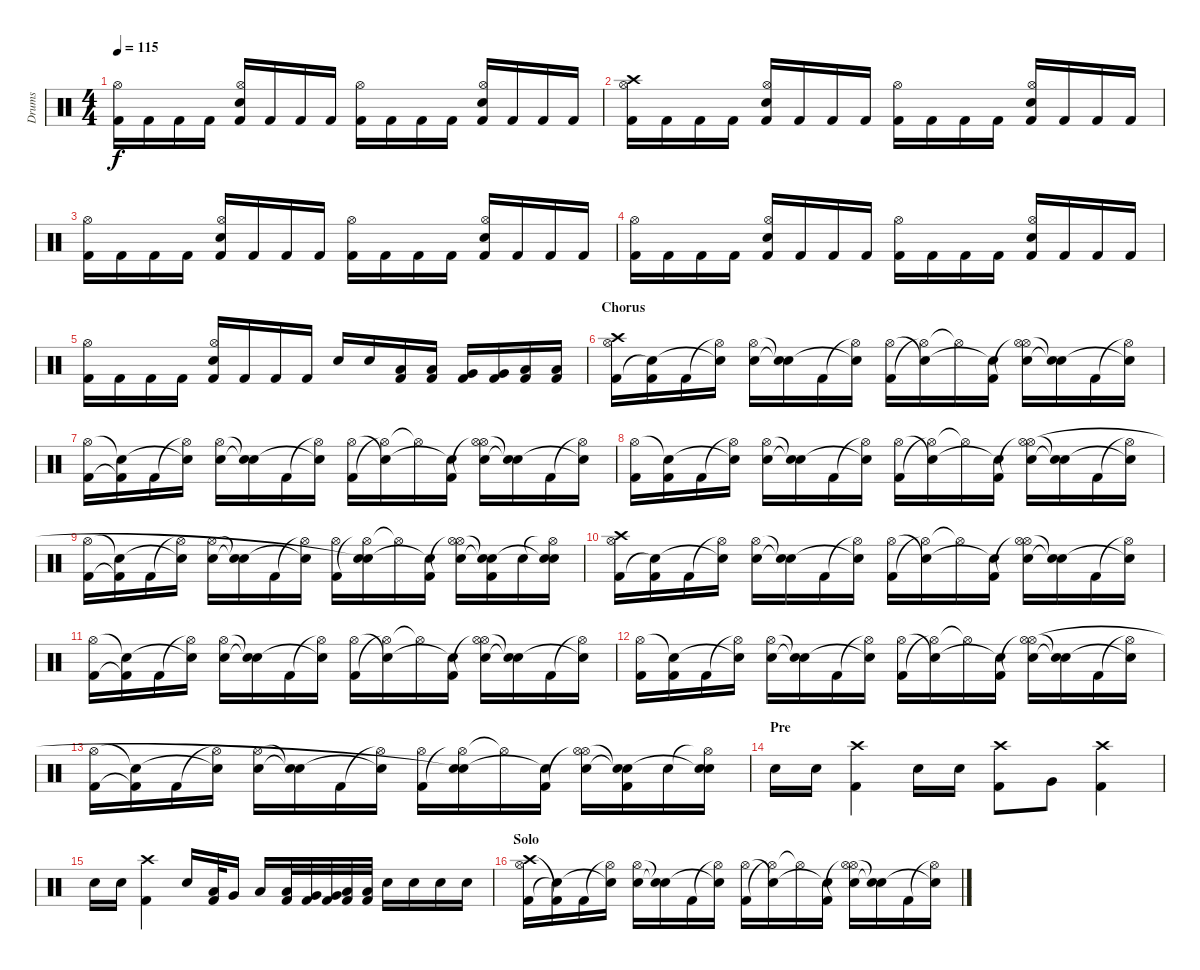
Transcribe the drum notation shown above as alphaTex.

\track ("Drums" "Drums") {instrument percussion}
\staff {score}
\articulation defaults
\ts (4 4)
\tempo 115
\clef neutral
\ks c
("Kick (hit) 2" "Hi-Hat (open)").16{dy f} "Kick (hit) 2".16 "Kick (hit) 2".16 "Kick (hit) 2".16 ("Kick (hit) 2" "Electric Snare (hit)" "Hi-Hat (open)").16 "Kick (hit) 2".16 "Kick (hit) 2".16 "Kick (hit) 2".16 ("Kick (hit) 2" "Hi-Hat (open)").16 "Kick (hit) 2".16 "Kick (hit) 2".16 "Kick (hit) 2".16 ("Kick (hit) 2" "Electric Snare (hit)" "Hi-Hat (open)").16 "Kick (hit) 2".16 "Kick (hit) 2".16 "Kick (hit) 2".16 |
("Kick (hit) 2" "Crash high (hit)" "Hi-Hat (open)").16 "Kick (hit) 2".16 "Kick (hit) 2".16 "Kick (hit) 2".16 ("Kick (hit) 2" "Electric Snare (hit)" "Hi-Hat (open)").16 "Kick (hit) 2".16 "Kick (hit) 2".16 "Kick (hit) 2".16 ("Kick (hit) 2" "Hi-Hat (open)").16 "Kick (hit) 2".16 "Kick (hit) 2".16 "Kick (hit) 2".16 ("Kick (hit) 2" "Electric Snare (hit)" "Hi-Hat (open)").16 "Kick (hit) 2".16 "Kick (hit) 2".16 "Kick (hit) 2".16 |
("Kick (hit) 2" "Hi-Hat (open)").16 "Kick (hit) 2".16 "Kick (hit) 2".16 "Kick (hit) 2".16 ("Kick (hit) 2" "Electric Snare (hit)" "Hi-Hat (open)").16 "Kick (hit) 2".16 "Kick (hit) 2".16 "Kick (hit) 2".16 ("Kick (hit) 2" "Hi-Hat (open)").16 "Kick (hit) 2".16 "Kick (hit) 2".16 "Kick (hit) 2".16 ("Kick (hit) 2" "Electric Snare (hit)" "Hi-Hat (open)").16 "Kick (hit) 2".16 "Kick (hit) 2".16 "Kick (hit) 2".16 |
("Kick (hit) 2" "Hi-Hat (open)").16 "Kick (hit) 2".16 "Kick (hit) 2".16 "Kick (hit) 2".16 ("Kick (hit) 2" "Electric Snare (hit)" "Hi-Hat (open)").16 "Kick (hit) 2".16 "Kick (hit) 2".16 "Kick (hit) 2".16 ("Kick (hit) 2" "Hi-Hat (open)").16 "Kick (hit) 2".16 "Kick (hit) 2".16 "Kick (hit) 2".16 ("Kick (hit) 2" "Electric Snare (hit)" "Hi-Hat (open)").16 "Kick (hit) 2".16 "Kick (hit) 2".16 "Kick (hit) 2".16 |
("Kick (hit) 2" "Hi-Hat (open)").16 "Kick (hit) 2".16 "Kick (hit) 2".16 "Kick (hit) 2".16 ("Kick (hit) 2" "Electric Snare (hit)" "Hi-Hat (open)").16 "Kick (hit) 2".16 "Kick (hit) 2".16 "Kick (hit) 2".16 "Electric Snare (hit)".16 "Electric Snare (hit)".16 ("Low Tom (hit)" "Kick (hit) 2").16 ("Low Tom (hit)" "Kick (hit) 2").16 ("Very Low Tom (hit)" "Kick (hit) 2").16 ("Very Low Tom (hit)" "Kick (hit) 2").16 ("Low Floor Tom (hit)" "Kick (hit) 2").16 ("Low Floor Tom (hit)" "Kick (hit) 2").16 |
\section ("" "Chorus")
("Crash high (hit)" "Kick (hit) 2" "Hi-Hat (open)").16 ("Kick (hit) 2" "Snare (hit)"{t}).16 "Kick (hit) 2".16 ("Hi-Hat (open)"{t} "Snare (hit)"{t}).16 ("Electric Snare (hit)" "Hi-Hat (open)").16 ("Snare (hit)"{t} "Snare (hit)"{t}).16 "Kick (hit) 2".16 ("Hi-Hat (open)"{t} "Snare (hit)"{t}).16 ("Kick (hit) 2" "Hi-Hat (open)").16 ("Hi-Hat (open)"{t} "Snare (hit)"{t}).16 "Hi-Hat (open)"{t}.16 ("Kick (hit) 2" "Snare (hit)"{t}).16 ("Hi-Hat (open)"{t} "Electric Snare (hit)" "Hi-Hat (open)").16 ("Electric Snare (hit)"{t} "Snare (hit)"{t}).16 "Kick (hit) 2".16 ("Hi-Hat (open)"{t} "Snare (hit)"{t}).16 |
("Kick (hit) 2" "Hi-Hat (open)").16 ("Kick (hit) 2"{t} "Snare (hit)"{t}).16 "Kick (hit) 2".16 ("Hi-Hat (open)"{t} "Snare (hit)"{t}).16 ("Electric Snare (hit)" "Hi-Hat (open)").16 ("Snare (hit)"{t} "Snare (hit)"{t}).16 "Kick (hit) 2".16 ("Hi-Hat (open)"{t} "Snare (hit)"{t}).16 ("Kick (hit) 2" "Hi-Hat (open)").16 ("Hi-Hat (open)"{t} "Snare (hit)"{t}).16 "Hi-Hat (open)"{t}.16 ("Kick (hit) 2" "Snare (hit)"{t}).16 ("Hi-Hat (open)"{t} "Electric Snare (hit)" "Hi-Hat (open)").16 ("Electric Snare (hit)"{t} "Snare (hit)"{t}).16 "Kick (hit) 2".16 ("Hi-Hat (open)"{t} "Snare (hit)"{t}).16 |
("Kick (hit) 2" "Hi-Hat (open)").16 ("Kick (hit) 2" "Snare (hit)"{t}).16 "Kick (hit) 2".16 ("Hi-Hat (open)"{t} "Snare (hit)"{t}).16 ("Electric Snare (hit)" "Hi-Hat (open)").16 ("Snare (hit)"{t} "Snare (hit)"{t}).16 "Kick (hit) 2".16 ("Hi-Hat (open)"{t} "Snare (hit)"{t}).16 ("Kick (hit) 2" "Hi-Hat (open)").16 ("Hi-Hat (open)"{t} "Snare (hit)"{t}).16 "Hi-Hat (open)"{t}.16 ("Kick (hit) 2" "Snare (hit)"{t}).16 ("Hi-Hat (open)"{t} "Electric Snare (hit)" "Hi-Hat (open)").16 ("Electric Snare (hit)"{t} "Snare (hit)"{t}).16 "Kick (hit) 2".16 ("Hi-Hat (open)"{t} "Snare (hit)"{t}).16 |
("Kick (hit) 2" "Hi-Hat (open)").16 ("Kick (hit) 2"{t} "Snare (hit)"{t}).16 "Kick (hit) 2".16 ("Hi-Hat (open)"{t} "Snare (hit)"{t}).16 ("Electric Snare (hit)" "Hi-Hat (open)").16 ("Snare (hit)"{t} "Snare (hit)"{t}).16 "Kick (hit) 2".16 ("Hi-Hat (open)"{t} "Snare (hit)"{t}).16 ("Kick (hit) 2" "Hi-Hat (open)").16 ("Hi-Hat (open)"{t} "Electric Snare (hit)" "Snare (hit)"{t}).16 "Hi-Hat (open)"{t}.16 ("Kick (hit) 2" "Snare (hit)"{t}).16 ("Hi-Hat (open)"{t} "Electric Snare (hit)" "Hi-Hat (open)").16 ("Kick (hit) 2" "Electric Snare (hit)"{t} "Snare (hit)"{t}).16 "Electric Snare (hit)".16 ("Hi-Hat (open)"{t} "Electric Snare (hit)" "Snare (hit)"{t}).16 |
("Crash high (hit)" "Kick (hit) 2" "Hi-Hat (open)").16 ("Kick (hit) 2" "Snare (hit)"{t}).16 "Kick (hit) 2".16 ("Hi-Hat (open)"{t} "Snare (hit)"{t}).16 ("Electric Snare (hit)" "Hi-Hat (open)").16 ("Snare (hit)"{t} "Snare (hit)"{t}).16 "Kick (hit) 2".16 ("Hi-Hat (open)"{t} "Snare (hit)"{t}).16 ("Kick (hit) 2" "Hi-Hat (open)").16 ("Hi-Hat (open)"{t} "Snare (hit)"{t}).16 "Hi-Hat (open)"{t}.16 ("Kick (hit) 2" "Snare (hit)"{t}).16 ("Hi-Hat (open)"{t} "Electric Snare (hit)" "Hi-Hat (open)").16 ("Electric Snare (hit)"{t} "Snare (hit)"{t}).16 "Kick (hit) 2".16 ("Hi-Hat (open)"{t} "Snare (hit)"{t}).16 |
("Kick (hit) 2" "Hi-Hat (open)").16 ("Kick (hit) 2"{t} "Snare (hit)"{t}).16 "Kick (hit) 2".16 ("Hi-Hat (open)"{t} "Snare (hit)"{t}).16 ("Electric Snare (hit)" "Hi-Hat (open)").16 ("Snare (hit)"{t} "Snare (hit)"{t}).16 "Kick (hit) 2".16 ("Hi-Hat (open)"{t} "Snare (hit)"{t}).16 ("Kick (hit) 2" "Hi-Hat (open)").16 ("Hi-Hat (open)"{t} "Snare (hit)"{t}).16 "Hi-Hat (open)"{t}.16 ("Kick (hit) 2" "Snare (hit)"{t}).16 ("Hi-Hat (open)"{t} "Electric Snare (hit)" "Hi-Hat (open)").16 ("Electric Snare (hit)"{t} "Snare (hit)"{t}).16 "Kick (hit) 2".16 ("Hi-Hat (open)"{t} "Snare (hit)"{t}).16 |
("Kick (hit) 2" "Hi-Hat (open)").16 ("Kick (hit) 2" "Snare (hit)"{t}).16 "Kick (hit) 2".16 ("Hi-Hat (open)"{t} "Snare (hit)"{t}).16 ("Electric Snare (hit)" "Hi-Hat (open)").16 ("Snare (hit)"{t} "Snare (hit)"{t}).16 "Kick (hit) 2".16 ("Hi-Hat (open)"{t} "Snare (hit)"{t}).16 ("Kick (hit) 2" "Hi-Hat (open)").16 ("Hi-Hat (open)"{t} "Snare (hit)"{t}).16 "Hi-Hat (open)"{t}.16 ("Kick (hit) 2" "Snare (hit)"{t}).16 ("Hi-Hat (open)"{t} "Electric Snare (hit)" "Hi-Hat (open)").16 ("Electric Snare (hit)"{t} "Snare (hit)"{t}).16 "Kick (hit) 2".16 ("Hi-Hat (open)"{t} "Snare (hit)"{t}).16 |
("Kick (hit) 2" "Hi-Hat (open)").16 ("Kick (hit) 2"{t} "Snare (hit)"{t}).16 "Kick (hit) 2".16 ("Hi-Hat (open)"{t} "Snare (hit)"{t}).16 ("Electric Snare (hit)" "Hi-Hat (open)").16 ("Snare (hit)"{t} "Snare (hit)"{t}).16 "Kick (hit) 2".16 ("Hi-Hat (open)"{t} "Snare (hit)"{t}).16 ("Kick (hit) 2" "Hi-Hat (open)").16 ("Hi-Hat (open)"{t} "Electric Snare (hit)" "Snare (hit)"{t}).16 "Hi-Hat (open)"{t}.16 ("Kick (hit) 2" "Snare (hit)"{t}).16 ("Hi-Hat (open)"{t} "Electric Snare (hit)" "Hi-Hat (open)").16 ("Kick (hit) 2" "Electric Snare (hit)"{t} "Snare (hit)"{t}).16 "Electric Snare (hit)".16 ("Hi-Hat (open)"{t} "Electric Snare (hit)" "Snare (hit)"{t}).16 |
\section ("" "Pre")
"Electric Snare (hit)".16 "Electric Snare (hit)".16 ("Crash high (hit)" "Kick (hit) 2").4 "Electric Snare (hit)".16 "Electric Snare (hit)".16 ("Kick (hit) 2" "Crash high (hit)").8 "Very Low Tom (hit)".8 ("Crash high (hit)" "Kick (hit) 2").4 |
"Electric Snare (hit)".16 "Electric Snare (hit)".16 ("Crash high (hit)" "Kick (hit) 2").4 "Electric Snare (hit)".16 ("Low Tom (hit)" "Kick (hit) 2").32 "Very Low Tom (hit)".16 "Low Tom (hit)".16 ("Low Tom (hit)" "Kick (hit) 2").32 ("Very Low Tom (hit)" "Kick (hit) 2").32 ("Very Low Tom (hit)" "Kick (hit) 2").32 ("Low Floor Tom (hit)" "Kick (hit) 2").32 ("Low Floor Tom (hit)" "Kick (hit) 2").32 "Electric Snare (hit)".16 "Electric Snare (hit)".16 "Electric Snare (hit)".16 "Electric Snare (hit)".16 |
\section ("" "Solo")
("Crash high (hit)" "Kick (hit) 2" "Hi-Hat (open)").16 ("Kick (hit) 2"{t} "Snare (hit)"{t}).16 "Kick (hit) 2".16 ("Hi-Hat (open)"{t} "Snare (hit)"{t}).16 ("Electric Snare (hit)" "Hi-Hat (open)").16 ("Snare (hit)"{t} "Snare (hit)"{t}).16 "Kick (hit) 2".16 ("Hi-Hat (open)"{t} "Snare (hit)"{t}).16 ("Kick (hit) 2" "Hi-Hat (open)").16 ("Hi-Hat (open)"{t} "Snare (hit)"{t}).16 "Hi-Hat (open)"{t}.16 ("Kick (hit) 2" "Snare (hit)"{t}).16 ("Hi-Hat (open)"{t} "Electric Snare (hit)" "Hi-Hat (open)").16 ("Electric Snare (hit)"{t} "Snare (hit)"{t}).16 "Kick (hit) 2".16 ("Hi-Hat (open)"{t} "Snare (hit)"{t}).16
